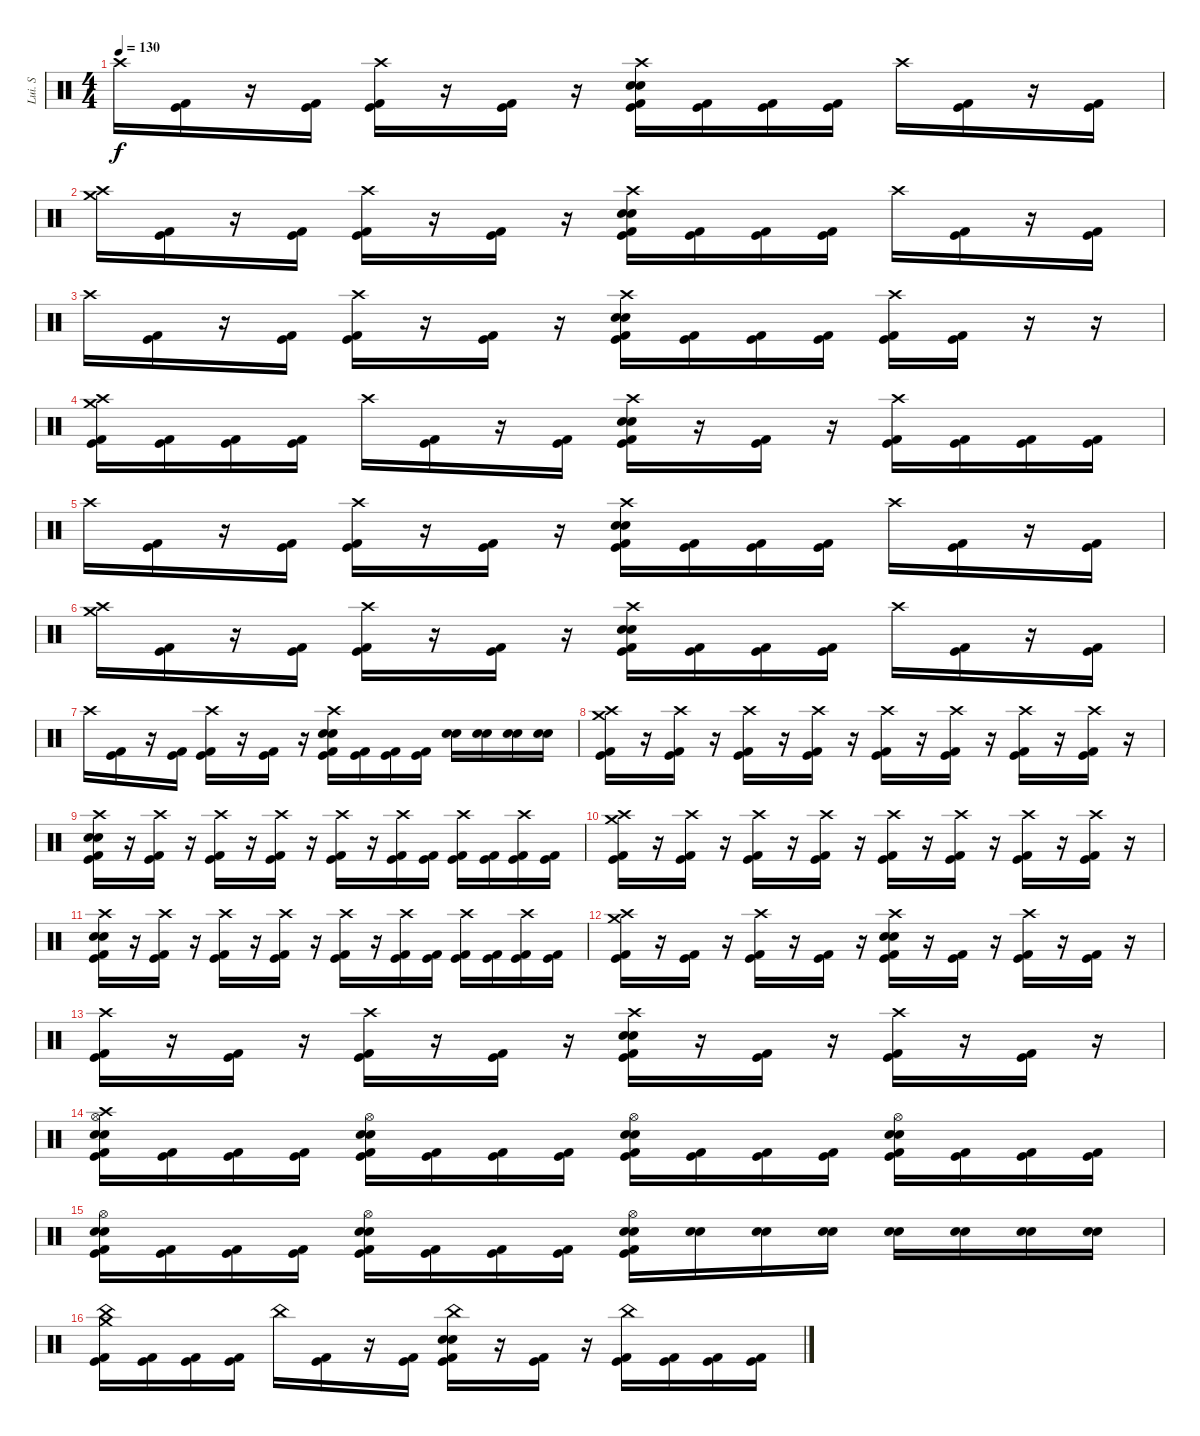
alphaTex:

\track ("Lui. S" "Lui. S") {instrument percussion}
\staff {score}
\articulation defaults
\ts (4 4)
\tempo 130
\clef neutral
\ks c "Crash high (hit)".16{dy f}
("Kick (hit) 2" "Kick (hit)").16 r.16 ("Kick (hit) 2" "Kick (hit)").16 ("Crash high (hit)" "Kick (hit) 2" "Kick (hit)").16 r.16 ("Kick (hit) 2" "Kick (hit)").16 r.16 ("Crash high (hit)" "Electric Snare (hit)" "Snare (hit) 2" "Kick (hit) 2" "Kick (hit)").16 ("Kick (hit) 2" "Kick (hit)").16 ("Kick (hit) 2" "Kick (hit)").16 ("Kick (hit) 2" "Kick (hit)").16 "Crash high (hit)".16 ("Kick (hit) 2" "Kick (hit)").16 r.16 ("Kick (hit) 2" "Kick (hit)").16 |
("Crash medium (hit)" "Crash high (hit)").16 ("Kick (hit) 2" "Kick (hit)").16 r.16 ("Kick (hit) 2" "Kick (hit)").16 ("Crash high (hit)" "Kick (hit) 2" "Kick (hit)").16 r.16 ("Kick (hit) 2" "Kick (hit)").16 r.16 ("Crash high (hit)" "Electric Snare (hit)" "Snare (hit) 2" "Kick (hit) 2" "Kick (hit)").16 ("Kick (hit) 2" "Kick (hit)").16 ("Kick (hit) 2" "Kick (hit)").16 ("Kick (hit) 2" "Kick (hit)").16 "Crash high (hit)".16 ("Kick (hit) 2" "Kick (hit)").16 r.16 ("Kick (hit) 2" "Kick (hit)").16 |
"Crash high (hit)".16 ("Kick (hit) 2" "Kick (hit)").16 r.16 ("Kick (hit) 2" "Kick (hit)").16 ("Crash high (hit)" "Kick (hit) 2" "Kick (hit)").16 r.16 ("Kick (hit) 2" "Kick (hit)").16 r.16 ("Crash high (hit)" "Electric Snare (hit)" "Snare (hit) 2" "Kick (hit) 2" "Kick (hit)").16 ("Kick (hit) 2" "Kick (hit)").16 ("Kick (hit) 2" "Kick (hit)").16 ("Kick (hit) 2" "Kick (hit)").16 ("Crash high (hit)" "Kick (hit) 2" "Kick (hit)").16 ("Kick (hit) 2" "Kick (hit)").16 r.16 r.16 |
("Crash medium (hit)" "Crash high (hit)" "Kick (hit) 2" "Kick (hit)").16 ("Kick (hit) 2" "Kick (hit)").16 ("Kick (hit) 2" "Kick (hit)").16 ("Kick (hit) 2" "Kick (hit)").16 "Crash high (hit)".16 ("Kick (hit) 2" "Kick (hit)").16 r.16 ("Kick (hit) 2" "Kick (hit)").16 ("Crash high (hit)" "Electric Snare (hit)" "Snare (hit) 2" "Kick (hit) 2" "Kick (hit)").16 r.16 ("Kick (hit) 2" "Kick (hit)").16 r.16 ("Crash high (hit)" "Kick (hit) 2" "Kick (hit)").16 ("Kick (hit) 2" "Kick (hit)").16 ("Kick (hit) 2" "Kick (hit)").16 ("Kick (hit) 2" "Kick (hit)").16 |
"Crash high (hit)".16 ("Kick (hit) 2" "Kick (hit)").16 r.16 ("Kick (hit) 2" "Kick (hit)").16 ("Crash high (hit)" "Kick (hit) 2" "Kick (hit)").16 r.16 ("Kick (hit) 2" "Kick (hit)").16 r.16 ("Crash high (hit)" "Electric Snare (hit)" "Snare (hit) 2" "Kick (hit) 2" "Kick (hit)").16 ("Kick (hit) 2" "Kick (hit)").16 ("Kick (hit) 2" "Kick (hit)").16 ("Kick (hit) 2" "Kick (hit)").16 "Crash high (hit)".16 ("Kick (hit) 2" "Kick (hit)").16 r.16 ("Kick (hit) 2" "Kick (hit)").16 |
("Crash medium (hit)" "Crash high (hit)").16 ("Kick (hit) 2" "Kick (hit)").16 r.16 ("Kick (hit) 2" "Kick (hit)").16 ("Crash high (hit)" "Kick (hit) 2" "Kick (hit)").16 r.16 ("Kick (hit) 2" "Kick (hit)").16 r.16 ("Crash high (hit)" "Electric Snare (hit)" "Snare (hit) 2" "Kick (hit) 2" "Kick (hit)").16 ("Kick (hit) 2" "Kick (hit)").16 ("Kick (hit) 2" "Kick (hit)").16 ("Kick (hit) 2" "Kick (hit)").16 "Crash high (hit)".16 ("Kick (hit) 2" "Kick (hit)").16 r.16 ("Kick (hit) 2" "Kick (hit)").16 |
"Crash high (hit)".16 ("Kick (hit) 2" "Kick (hit)").16 r.16 ("Kick (hit) 2" "Kick (hit)").16 ("Crash high (hit)" "Kick (hit) 2" "Kick (hit)").16 r.16 ("Kick (hit) 2" "Kick (hit)").16 r.16 ("Crash high (hit)" "Electric Snare (hit)" "Snare (hit) 2" "Kick (hit) 2" "Kick (hit)").16 ("Kick (hit) 2" "Kick (hit)").16 ("Kick (hit) 2" "Kick (hit)").16 ("Kick (hit) 2" "Kick (hit)").16 ("Electric Snare (hit)" "Snare (hit) 2").16 ("Electric Snare (hit)" "Snare (hit) 2").16 ("Electric Snare (hit)" "Snare (hit) 2").16 ("Electric Snare (hit)" "Snare (hit) 2").16 |
("Crash high (hit)" "Crash medium (hit)" "Kick (hit) 2" "Kick (hit)").16 r.16 ("Crash high (hit)" "Kick (hit) 2" "Kick (hit)").16 r.16 ("Crash high (hit)" "Kick (hit) 2" "Kick (hit)").16 r.16 ("Crash high (hit)" "Kick (hit) 2" "Kick (hit)").16 r.16 ("Crash high (hit)" "Kick (hit) 2" "Kick (hit)").16 r.16 ("Crash high (hit)" "Kick (hit) 2" "Kick (hit)").16 r.16 ("Crash high (hit)" "Kick (hit) 2" "Kick (hit)").16 r.16 ("Crash high (hit)" "Kick (hit) 2" "Kick (hit)").16 r.16 |
("Crash high (hit)" "Electric Snare (hit)" "Snare (hit) 2" "Kick (hit) 2" "Kick (hit)").16 r.16 ("Crash high (hit)" "Kick (hit) 2" "Kick (hit)").16 r.16 ("Crash high (hit)" "Kick (hit) 2" "Kick (hit)").16 r.16 ("Crash high (hit)" "Kick (hit) 2" "Kick (hit)").16 r.16 ("Crash high (hit)" "Kick (hit) 2" "Kick (hit)").16 r.16 ("Crash high (hit)" "Kick (hit) 2" "Kick (hit)").16 ("Kick (hit) 2" "Kick (hit)").16 ("Crash high (hit)" "Kick (hit) 2" "Kick (hit)").16 ("Kick (hit) 2" "Kick (hit)").16 ("Crash high (hit)" "Kick (hit) 2" "Kick (hit)").16 ("Kick (hit) 2" "Kick (hit)").16 |
("Crash high (hit)" "Crash medium (hit)" "Kick (hit) 2" "Kick (hit)").16 r.16 ("Crash high (hit)" "Kick (hit) 2" "Kick (hit)").16 r.16 ("Crash high (hit)" "Kick (hit) 2" "Kick (hit)").16 r.16 ("Crash high (hit)" "Kick (hit) 2" "Kick (hit)").16 r.16 ("Crash high (hit)" "Kick (hit) 2" "Kick (hit)").16 r.16 ("Crash high (hit)" "Kick (hit) 2" "Kick (hit)").16 r.16 ("Crash high (hit)" "Kick (hit) 2" "Kick (hit)").16 r.16 ("Crash high (hit)" "Kick (hit) 2" "Kick (hit)").16 r.16 |
("Crash high (hit)" "Electric Snare (hit)" "Snare (hit) 2" "Kick (hit) 2" "Kick (hit)").16 r.16 ("Crash high (hit)" "Kick (hit) 2" "Kick (hit)").16 r.16 ("Crash high (hit)" "Kick (hit) 2" "Kick (hit)").16 r.16 ("Crash high (hit)" "Kick (hit) 2" "Kick (hit)").16 r.16 ("Crash high (hit)" "Kick (hit) 2" "Kick (hit)").16 r.16 ("Crash high (hit)" "Kick (hit) 2" "Kick (hit)").16 ("Kick (hit) 2" "Kick (hit)").16 ("Crash high (hit)" "Kick (hit) 2" "Kick (hit)").16 ("Kick (hit) 2" "Kick (hit)").16 ("Crash high (hit)" "Kick (hit) 2" "Kick (hit)").16 ("Kick (hit) 2" "Kick (hit)").16 |
("Crash medium (hit)" "Crash high (hit)" "Kick (hit) 2" "Kick (hit)").16 r.16 ("Kick (hit) 2" "Kick (hit)").16 r.16 ("Crash high (hit)" "Kick (hit) 2" "Kick (hit)").16 r.16 ("Kick (hit) 2" "Kick (hit)").16 r.16 ("Crash high (hit)" "Electric Snare (hit)" "Snare (hit) 2" "Kick (hit) 2" "Kick (hit)").16 r.16 ("Kick (hit) 2" "Kick (hit)").16 r.16 ("Crash high (hit)" "Kick (hit) 2" "Kick (hit)").16 r.16 ("Kick (hit) 2" "Kick (hit)").16 r.16 |
("Crash high (hit)" "Kick (hit) 2" "Kick (hit)").16 r.16 ("Kick (hit) 2" "Kick (hit)").16 r.16 ("Crash high (hit)" "Kick (hit) 2" "Kick (hit)").16 r.16 ("Kick (hit) 2" "Kick (hit)").16 r.16 ("Crash high (hit)" "Electric Snare (hit)" "Snare (hit) 2" "Kick (hit) 2" "Kick (hit)").16 r.16 ("Kick (hit) 2" "Kick (hit)").16 r.16 ("Crash high (hit)" "Kick (hit) 2" "Kick (hit)").16 r.16 ("Kick (hit) 2" "Kick (hit)").16 r.16 |
("Hi-Hat (open)" "Crash high (hit)" "Snare (hit) 2" "Electric Snare (hit)" "Kick (hit) 2" "Kick (hit)").16 ("Kick (hit) 2" "Kick (hit)").16 ("Kick (hit) 2" "Kick (hit)").16 ("Kick (hit) 2" "Kick (hit)").16 ("Hi-Hat (open)" "Snare (hit) 2" "Electric Snare (hit)" "Kick (hit) 2" "Kick (hit)").16 ("Kick (hit) 2" "Kick (hit)").16 ("Kick (hit) 2" "Kick (hit)").16 ("Kick (hit) 2" "Kick (hit)").16 ("Hi-Hat (open)" "Snare (hit) 2" "Electric Snare (hit)" "Kick (hit) 2" "Kick (hit)").16 ("Kick (hit) 2" "Kick (hit)").16 ("Kick (hit) 2" "Kick (hit)").16 ("Kick (hit) 2" "Kick (hit)").16 ("Hi-Hat (open)" "Snare (hit) 2" "Electric Snare (hit)" "Kick (hit) 2" "Kick (hit)").16 ("Kick (hit) 2" "Kick (hit)").16 ("Kick (hit) 2" "Kick (hit)").16 ("Kick (hit) 2" "Kick (hit)").16 |
("Hi-Hat (open)" "Snare (hit) 2" "Electric Snare (hit)" "Kick (hit) 2" "Kick (hit)").16 ("Kick (hit) 2" "Kick (hit)").16 ("Kick (hit) 2" "Kick (hit)").16 ("Kick (hit) 2" "Kick (hit)").16 ("Hi-Hat (open)" "Snare (hit) 2" "Electric Snare (hit)" "Kick (hit) 2" "Kick (hit)").16 ("Kick (hit) 2" "Kick (hit)").16 ("Kick (hit) 2" "Kick (hit)").16 ("Kick (hit) 2" "Kick (hit)").16 ("Hi-Hat (open)" "Snare (hit) 2" "Electric Snare (hit)" "Kick (hit) 2" "Kick (hit)").16 ("Snare (hit) 2" "Electric Snare (hit)").16 ("Snare (hit) 2" "Electric Snare (hit)").16 ("Snare (hit) 2" "Electric Snare (hit)").16 ("Snare (hit) 2" "Electric Snare (hit)").16 ("Snare (hit) 2" "Electric Snare (hit)").16 ("Snare (hit) 2" "Electric Snare (hit)").16 ("Snare (hit) 2" "Electric Snare (hit)").16 |
("Crash medium (hit)" "China (hit)" "Kick (hit) 2" "Kick (hit)").16 ("Kick (hit) 2" "Kick (hit)").16 ("Kick (hit) 2" "Kick (hit)").16 ("Kick (hit) 2" "Kick (hit)").16 "China (hit)".16 ("Kick (hit) 2" "Kick (hit)").16 r.16 ("Kick (hit) 2" "Kick (hit)").16 ("China (hit)" "Electric Snare (hit)" "Snare (hit) 2" "Kick (hit) 2" "Kick (hit)").16 r.16 ("Kick (hit) 2" "Kick (hit)").16 r.16 ("China (hit)" "Kick (hit) 2" "Kick (hit)").16 ("Kick (hit) 2" "Kick (hit)").16 ("Kick (hit) 2" "Kick (hit)").16 ("Kick (hit) 2" "Kick (hit)").16
